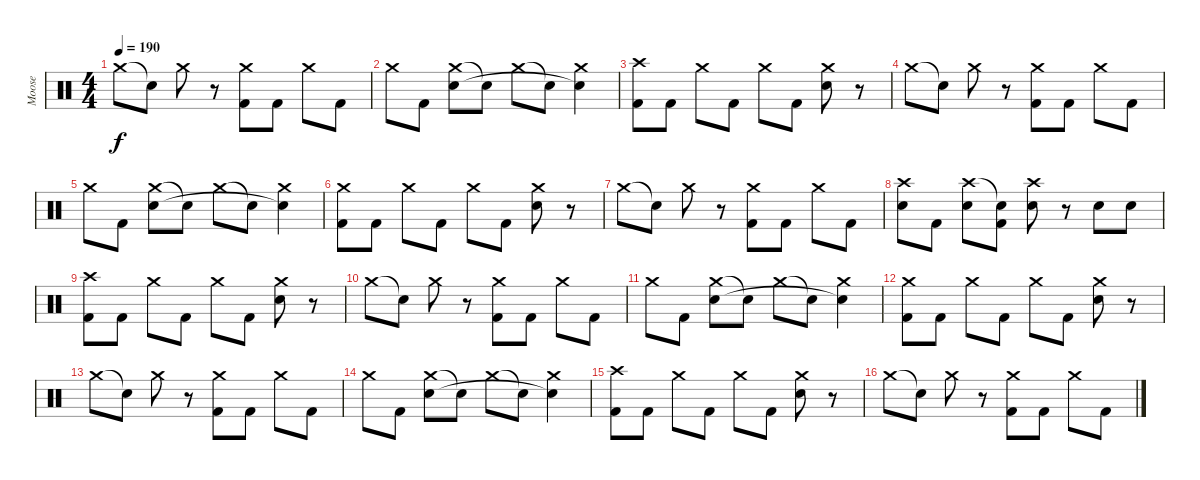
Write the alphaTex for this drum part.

\track ("Moose" "Moose") {instrument percussion}
\staff {score}
\articulation defaults
\ts (4 4)
\tempo 190
\clef neutral
\ks c "Crash medium (hit)".8{dy f} "Snare (hit)"{t}.8 "Crash medium (hit)".8
r.8 ("Crash medium (hit)" "Kick (hit) 2").8 "Kick (hit) 2".8 "Crash medium (hit)".8 "Kick (hit) 2".8 |
"Crash medium (hit)".8 "Kick (hit) 2".8 ("Crash medium (hit)" "Snare (hit) 2").8 "Snare (hit)"{t}.8 "Crash medium (hit)".8 "Snare (hit)"{t}.8 ("Crash medium (hit)" "Snare (hit)"{t}).4 |
("Crash high (hit)" "Kick (hit) 2").8 "Kick (hit) 2".8 "Crash medium (hit)".8 "Kick (hit) 2".8 "Crash medium (hit)".8 "Kick (hit) 2".8 ("Crash medium (hit)" "Snare (hit) 2").8 r.8 |
"Crash medium (hit)".8 "Snare (hit)"{t}.8 "Crash medium (hit)".8 r.8 ("Crash medium (hit)" "Kick (hit) 2").8 "Kick (hit) 2".8 "Crash medium (hit)".8 "Kick (hit) 2".8 |
"Crash medium (hit)".8 "Kick (hit) 2".8 ("Crash medium (hit)" "Snare (hit) 2").8 "Snare (hit)"{t}.8 "Crash medium (hit)".8 "Snare (hit)"{t}.8 ("Crash medium (hit)" "Snare (hit)"{t}).4 |
("Crash medium (hit)" "Kick (hit) 2").8 "Kick (hit) 2".8 "Crash medium (hit)".8 "Kick (hit) 2".8 "Crash medium (hit)".8 "Kick (hit) 2".8 ("Crash medium (hit)" "Snare (hit) 2").8 r.8 |
"Crash medium (hit)".8 "Snare (hit)"{t}.8 "Crash medium (hit)".8 r.8 ("Crash medium (hit)" "Kick (hit) 2").8 "Kick (hit) 2".8 "Crash medium (hit)".8 "Kick (hit) 2".8 |
("Crash high (hit)" "Snare (hit) 2").8 "Kick (hit) 2".8 ("Crash high (hit)" "Snare (hit) 2").8 ("Snare (hit)"{t} "Kick (hit) 2").8 ("Crash high (hit)" "Snare (hit) 2").8 r.8 "Snare (hit) 2".8 "Snare (hit) 2".8 |
("Crash high (hit)" "Kick (hit) 2").8 "Kick (hit) 2".8 "Crash medium (hit)".8 "Kick (hit) 2".8 "Crash medium (hit)".8 "Kick (hit) 2".8 ("Crash medium (hit)" "Snare (hit) 2").8 r.8 |
"Crash medium (hit)".8 "Snare (hit)"{t}.8 "Crash medium (hit)".8 r.8 ("Crash medium (hit)" "Kick (hit) 2").8 "Kick (hit) 2".8 "Crash medium (hit)".8 "Kick (hit) 2".8 |
"Crash medium (hit)".8 "Kick (hit) 2".8 ("Crash medium (hit)" "Snare (hit) 2").8 "Snare (hit)"{t}.8 "Crash medium (hit)".8 "Snare (hit)"{t}.8 ("Crash medium (hit)" "Snare (hit)"{t}).4 |
("Crash medium (hit)" "Kick (hit) 2").8 "Kick (hit) 2".8 "Crash medium (hit)".8 "Kick (hit) 2".8 "Crash medium (hit)".8 "Kick (hit) 2".8 ("Crash medium (hit)" "Snare (hit) 2").8 r.8 |
"Crash medium (hit)".8 "Snare (hit)"{t}.8 "Crash medium (hit)".8 r.8 ("Crash medium (hit)" "Kick (hit) 2").8 "Kick (hit) 2".8 "Crash medium (hit)".8 "Kick (hit) 2".8 |
"Crash medium (hit)".8 "Kick (hit) 2".8 ("Crash medium (hit)" "Snare (hit) 2").8 "Snare (hit)"{t}.8 "Crash medium (hit)".8 "Snare (hit)"{t}.8 ("Crash medium (hit)" "Snare (hit)"{t}).4 |
("Crash high (hit)" "Kick (hit) 2").8 "Kick (hit) 2".8 "Crash medium (hit)".8 "Kick (hit) 2".8 "Crash medium (hit)".8 "Kick (hit) 2".8 ("Crash medium (hit)" "Snare (hit) 2").8 r.8 |
"Crash medium (hit)".8 "Snare (hit)"{t}.8 "Crash medium (hit)".8 r.8 ("Crash medium (hit)" "Kick (hit) 2").8 "Kick (hit) 2".8 "Crash medium (hit)".8 "Kick (hit) 2".8
